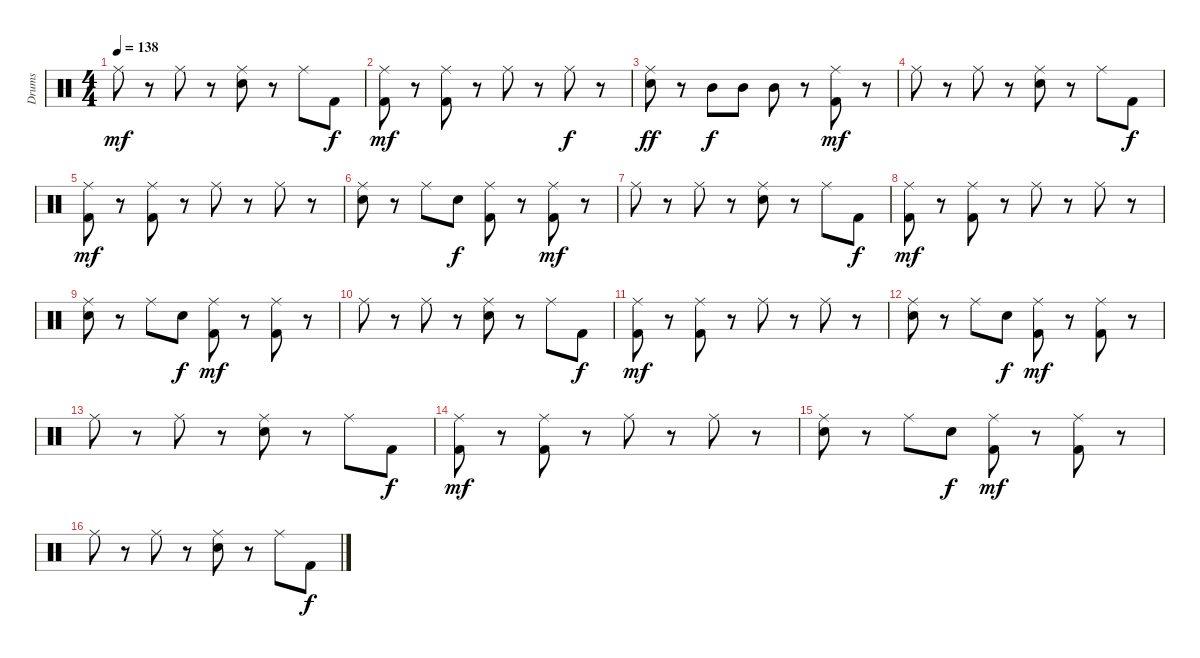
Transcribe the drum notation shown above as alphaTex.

\track ("Drums" "Drums") {instrument percussion}
\staff {score}
\articulation defaults
\ts (4 4)
\tempo 138
\clef neutral
\ks c "Ride (middle)".8{dy mf}
r.8 "Ride (middle)".8 r.8 ("Ride (middle)" "Snare (hit) 2").8 r.8 "Ride (middle)".8 "Kick (hit) 2".8{dy f} |
("Ride (middle)" "Kick (hit) 2").8{dy mf} r.8 ("Ride (middle)" "Kick (hit) 2").8 r.8 "Ride (middle)".8 r.8 "Ride (middle)".8{dy f} r.8 |
("Ride (middle)" "Snare (hit) 2").8{dy ff} r.8 "Mid Tom (hit)".8{dy f} "Mid Tom (hit)".8 "Mid Tom (hit)".8 r.8 ("Ride (middle)" "Kick (hit) 2").8{dy mf} r.8 |
"Ride (middle)".8 r.8 "Ride (middle)".8 r.8 ("Ride (middle)" "Snare (hit) 2").8 r.8 "Ride (middle)".8 "Kick (hit) 2".8{dy f} |
("Ride (middle)" "Kick (hit) 2").8{dy mf} r.8 ("Ride (middle)" "Kick (hit) 2").8 r.8 "Ride (middle)".8 r.8 "Ride (middle)".8 r.8 |
("Ride (middle)" "Snare (hit) 2").8 r.8 "Ride (middle)".8 "Snare (hit) 2".8{dy f} ("Ride (middle)" "Kick (hit) 2").8 r.8 ("Ride (middle)" "Kick (hit) 2").8{dy mf} r.8 |
"Ride (middle)".8 r.8 "Ride (middle)".8 r.8 ("Ride (middle)" "Snare (hit) 2").8 r.8 "Ride (middle)".8 "Kick (hit) 2".8{dy f} |
("Ride (middle)" "Kick (hit) 2").8{dy mf} r.8 ("Ride (middle)" "Kick (hit) 2").8 r.8 "Ride (middle)".8 r.8 "Ride (middle)".8 r.8 |
("Ride (middle)" "Snare (hit) 2").8 r.8 "Ride (middle)".8 "Snare (hit) 2".8{dy f} ("Ride (middle)" "Kick (hit) 2").8{dy mf} r.8 ("Ride (middle)" "Kick (hit) 2").8 r.8 |
"Ride (middle)".8 r.8 "Ride (middle)".8 r.8 ("Ride (middle)" "Snare (hit) 2").8 r.8 "Ride (middle)".8 "Kick (hit) 2".8{dy f} |
("Ride (middle)" "Kick (hit) 2").8{dy mf} r.8 ("Ride (middle)" "Kick (hit) 2").8 r.8 "Ride (middle)".8 r.8 "Ride (middle)".8 r.8 |
("Ride (middle)" "Snare (hit) 2").8 r.8 "Ride (middle)".8 "Snare (hit) 2".8{dy f} ("Ride (middle)" "Kick (hit) 2").8{dy mf} r.8 ("Ride (middle)" "Kick (hit) 2").8 r.8 |
"Ride (middle)".8 r.8 "Ride (middle)".8 r.8 ("Ride (middle)" "Snare (hit) 2").8 r.8 "Ride (middle)".8 "Kick (hit) 2".8{dy f} |
("Ride (middle)" "Kick (hit) 2").8{dy mf} r.8 ("Ride (middle)" "Kick (hit) 2").8 r.8 "Ride (middle)".8 r.8 "Ride (middle)".8 r.8 |
("Ride (middle)" "Snare (hit) 2").8 r.8 "Ride (middle)".8 "Snare (hit) 2".8{dy f} ("Ride (middle)" "Kick (hit) 2").8{dy mf} r.8 ("Ride (middle)" "Kick (hit) 2").8 r.8 |
"Ride (middle)".8 r.8 "Ride (middle)".8 r.8 ("Ride (middle)" "Snare (hit) 2").8 r.8 "Ride (middle)".8 "Kick (hit) 2".8{dy f}
